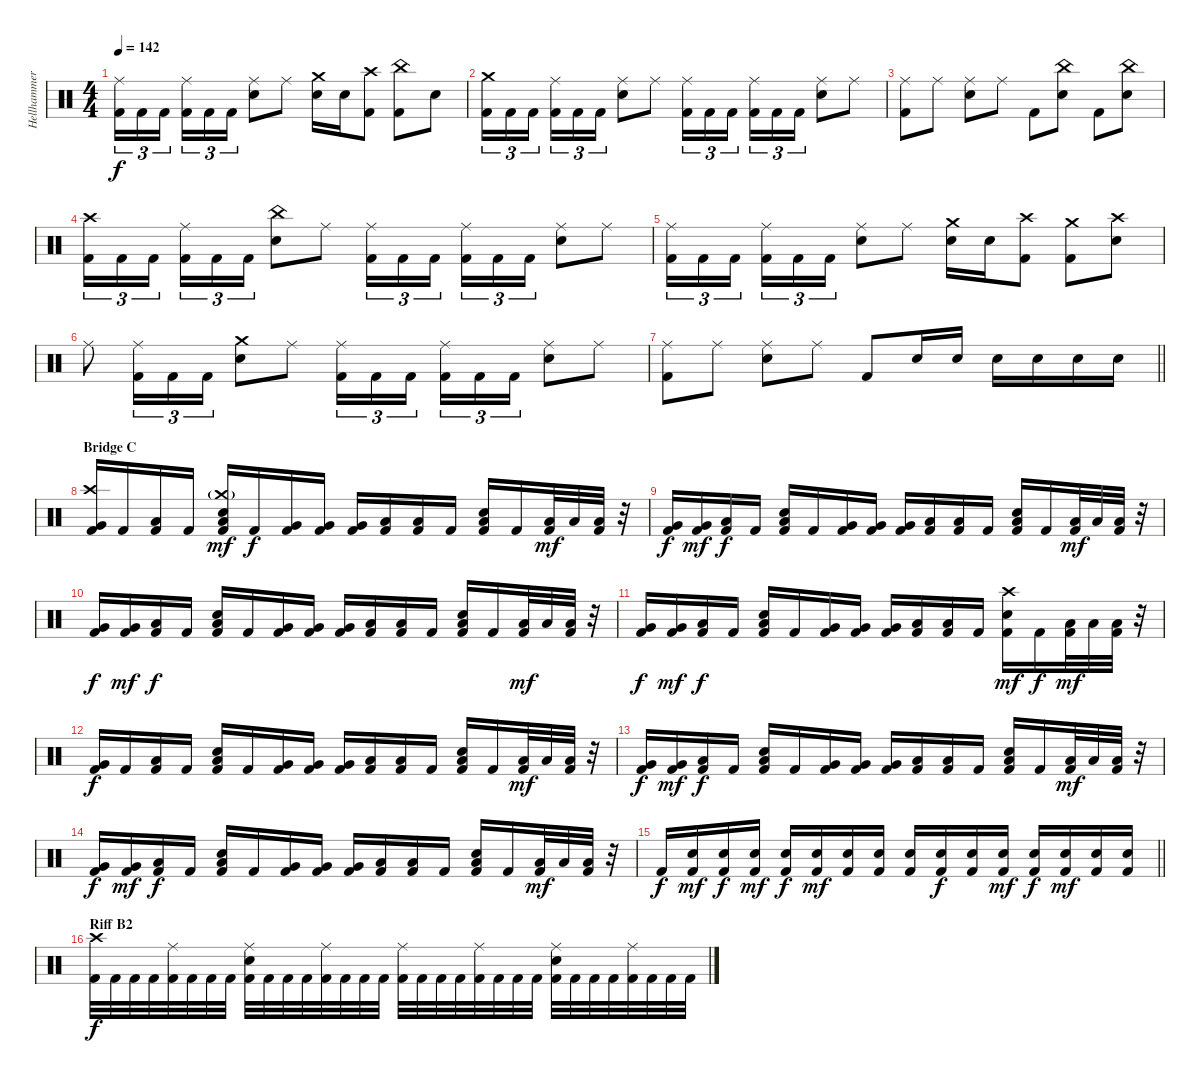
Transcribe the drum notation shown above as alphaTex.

\track ("Hellhammer" "Hellhammer") {instrument percussion}
\staff {score}
\articulation defaults
\ts (4 4)
\tempo 142
\clef neutral
\ks c
("Ride (middle)" "Kick (hit) 2").16{tu (3 2) dy f} "Kick (hit) 2".16{tu (3 2)} "Kick (hit) 2".16{tu (3 2) beam splitsecondary} ("Ride (middle)" "Kick (hit) 2").16{tu (3 2)} "Kick (hit) 2".16{tu (3 2)} "Kick (hit) 2".16{tu (3 2)} ("Ride (middle)" "Electric Snare (hit)").8 "Ride (middle)".8 ("Crash medium (hit)" "Electric Snare (hit)").16 "Electric Snare (hit)".16 ("Crash high (hit)" "Kick (hit) 2").8 ("China (hit)" "Kick (hit) 2").8 "Electric Snare (hit)".8 |
("Crash medium (hit)" "Kick (hit) 2").16{tu (3 2)} "Kick (hit) 2".16{tu (3 2)} "Kick (hit) 2".16{tu (3 2) beam splitsecondary} ("Ride (middle)" "Kick (hit) 2").16{tu (3 2)} "Kick (hit) 2".16{tu (3 2)} "Kick (hit) 2".16{tu (3 2)} ("Ride (middle)" "Electric Snare (hit)").8 "Ride (middle)".8 ("Ride (middle)" "Kick (hit) 2").16{tu (3 2)} "Kick (hit) 2".16{tu (3 2)} "Kick (hit) 2".16{tu (3 2) beam splitsecondary} ("Ride (middle)" "Kick (hit) 2").16{tu (3 2)} "Kick (hit) 2".16{tu (3 2)} "Kick (hit) 2".16{tu (3 2)} ("Ride (middle)" "Electric Snare (hit)").8 "Ride (middle)".8 |
("Ride (middle)" "Kick (hit) 2").8 "Ride (middle)".8 ("Ride (middle)" "Electric Snare (hit)").8 "Ride (middle)".8 "Kick (hit) 2".8 ("China (hit)" "Electric Snare (hit)").8 "Kick (hit) 2".8 ("China (hit)" "Electric Snare (hit)").8 |
("Crash high (hit)" "Kick (hit) 2").16{tu (3 2)} "Kick (hit) 2".16{tu (3 2)} "Kick (hit) 2".16{tu (3 2) beam splitsecondary} ("Ride (middle)" "Kick (hit) 2").16{tu (3 2)} "Kick (hit) 2".16{tu (3 2)} "Kick (hit) 2".16{tu (3 2)} ("China (hit)" "Electric Snare (hit)").8 "Ride (middle)".8 ("Ride (middle)" "Kick (hit) 2").16{tu (3 2)} "Kick (hit) 2".16{tu (3 2)} "Kick (hit) 2".16{tu (3 2) beam splitsecondary} ("Ride (middle)" "Kick (hit) 2").16{tu (3 2)} "Kick (hit) 2".16{tu (3 2)} "Kick (hit) 2".16{tu (3 2)} ("Ride (middle)" "Electric Snare (hit)").8 "Ride (middle)".8 |
("Ride (middle)" "Kick (hit) 2").16{tu (3 2)} "Kick (hit) 2".16{tu (3 2)} "Kick (hit) 2".16{tu (3 2) beam splitsecondary} ("Ride (middle)" "Kick (hit) 2").16{tu (3 2)} "Kick (hit) 2".16{tu (3 2)} "Kick (hit) 2".16{tu (3 2)} ("Ride (middle)" "Electric Snare (hit)").8 "Ride (middle)".8 ("Crash medium (hit)" "Electric Snare (hit)").16 "Electric Snare (hit)".16 ("Crash high (hit)" "Kick (hit) 2").8 ("Crash medium (hit)" "Kick (hit) 2").8 ("Crash high (hit)" "Electric Snare (hit)").8 |
"Ride (middle)".8 ("Ride (middle)" "Kick (hit) 2").16{tu (3 2)} "Kick (hit) 2".16{tu (3 2)} "Kick (hit) 2".16{tu (3 2)} ("Crash medium (hit)" "Electric Snare (hit)").8 "Ride (middle)".8 ("Ride (middle)" "Kick (hit) 2").16{tu (3 2)} "Kick (hit) 2".16{tu (3 2)} "Kick (hit) 2".16{tu (3 2) beam splitsecondary} ("Ride (middle)" "Kick (hit) 2").16{tu (3 2)} "Kick (hit) 2".16{tu (3 2)} "Kick (hit) 2".16{tu (3 2)} ("Ride (middle)" "Electric Snare (hit)").8 "Ride (middle)".8 |
\barLineRight lightlight
("Ride (middle)" "Kick (hit) 2").8 "Ride (middle)".8 ("Ride (middle)" "Electric Snare (hit)").8 "Ride (middle)".8 "Kick (hit) 2".8 "Electric Snare (hit)".16 "Electric Snare (hit)".16 "Electric Snare (hit)".16 "Electric Snare (hit)".16 "Electric Snare (hit)".16 "Electric Snare (hit)".16 |
\section ("" "Bridge C")
("Crash high (hit)" "Very Low Tom (hit)" "Kick (hit) 2").16 "Kick (hit) 2".16 ("Low Floor Tom (hit)" "Kick (hit) 2").16 "Kick (hit) 2".16 ("Crash medium (hit)"{g} "Low Floor Tom (hit)" "Electric Snare (hit)" "Kick (hit) 2").16{dy mf} "Kick (hit) 2".16{dy f} ("Very Low Tom (hit)" "Kick (hit) 2").16 ("Very Low Tom (hit)" "Kick (hit) 2").16 ("Very Low Tom (hit)" "Kick (hit) 2").16 ("Low Floor Tom (hit)" "Kick (hit) 2").16 ("Low Floor Tom (hit)" "Kick (hit) 2").16 "Kick (hit) 2".16 ("Low Floor Tom (hit)" "Electric Snare (hit)" "Kick (hit) 2").16 "Kick (hit) 2".16 ("Low Floor Tom (hit)" "Kick (hit) 2").32{dy mf} "Low Floor Tom (hit)".32 ("Low Floor Tom (hit)" "Kick (hit) 2").32 r.32 |
("Very Low Tom (hit)" "Kick (hit) 2").16{dy f} ("Very Low Tom (hit)" "Kick (hit) 2").16{dy mf} ("Low Floor Tom (hit)" "Kick (hit) 2").16{dy f} "Kick (hit) 2".16 ("Low Floor Tom (hit)" "Electric Snare (hit)" "Kick (hit) 2").16 "Kick (hit) 2".16 ("Very Low Tom (hit)" "Kick (hit) 2").16 ("Very Low Tom (hit)" "Kick (hit) 2").16 ("Very Low Tom (hit)" "Kick (hit) 2").16 ("Low Floor Tom (hit)" "Kick (hit) 2").16 ("Low Floor Tom (hit)" "Kick (hit) 2").16 "Kick (hit) 2".16 ("Low Floor Tom (hit)" "Electric Snare (hit)" "Kick (hit) 2").16 "Kick (hit) 2".16 ("Low Floor Tom (hit)" "Kick (hit) 2").32{dy mf} "Low Floor Tom (hit)".32 ("Low Floor Tom (hit)" "Kick (hit) 2").32 r.32 |
("Very Low Tom (hit)" "Kick (hit) 2").16{dy f} ("Very Low Tom (hit)" "Kick (hit) 2").16{dy mf} ("Low Floor Tom (hit)" "Kick (hit) 2").16{dy f} "Kick (hit) 2".16 ("Low Floor Tom (hit)" "Electric Snare (hit)" "Kick (hit) 2").16 "Kick (hit) 2".16 ("Very Low Tom (hit)" "Kick (hit) 2").16 ("Very Low Tom (hit)" "Kick (hit) 2").16 ("Very Low Tom (hit)" "Kick (hit) 2").16 ("Low Floor Tom (hit)" "Kick (hit) 2").16 ("Low Floor Tom (hit)" "Kick (hit) 2").16 "Kick (hit) 2".16 ("Low Floor Tom (hit)" "Electric Snare (hit)" "Kick (hit) 2").16 "Kick (hit) 2".16 ("Low Floor Tom (hit)" "Kick (hit) 2").32{dy mf} "Low Floor Tom (hit)".32 ("Low Floor Tom (hit)" "Kick (hit) 2").32 r.32 |
("Very Low Tom (hit)" "Kick (hit) 2").16{dy f} ("Very Low Tom (hit)" "Kick (hit) 2").16{dy mf} ("Low Floor Tom (hit)" "Kick (hit) 2").16{dy f} "Kick (hit) 2".16 ("Low Floor Tom (hit)" "Electric Snare (hit)" "Kick (hit) 2").16 "Kick (hit) 2".16 ("Very Low Tom (hit)" "Kick (hit) 2").16 ("Very Low Tom (hit)" "Kick (hit) 2").16 ("Very Low Tom (hit)" "Kick (hit) 2").16 ("Low Floor Tom (hit)" "Kick (hit) 2").16 ("Low Floor Tom (hit)" "Kick (hit) 2").16 "Kick (hit) 2".16 ("Crash high (hit)" "Electric Snare (hit)" "Kick (hit) 2").16{dy mf} "Kick (hit) 2".16{dy f} ("Low Floor Tom (hit)" "Kick (hit) 2").32{dy mf} "Low Floor Tom (hit)".32 ("Low Floor Tom (hit)" "Kick (hit) 2").32 r.32 |
("Very Low Tom (hit)" "Kick (hit) 2").16{dy f} "Kick (hit) 2".16 ("Low Floor Tom (hit)" "Kick (hit) 2").16 "Kick (hit) 2".16 ("Low Floor Tom (hit)" "Electric Snare (hit)" "Kick (hit) 2").16 "Kick (hit) 2".16 ("Very Low Tom (hit)" "Kick (hit) 2").16 ("Very Low Tom (hit)" "Kick (hit) 2").16 ("Very Low Tom (hit)" "Kick (hit) 2").16 ("Low Floor Tom (hit)" "Kick (hit) 2").16 ("Low Floor Tom (hit)" "Kick (hit) 2").16 "Kick (hit) 2".16 ("Low Floor Tom (hit)" "Electric Snare (hit)" "Kick (hit) 2").16 "Kick (hit) 2".16 ("Low Floor Tom (hit)" "Kick (hit) 2").32{dy mf} "Low Floor Tom (hit)".32 ("Low Floor Tom (hit)" "Kick (hit) 2").32 r.32 |
("Very Low Tom (hit)" "Kick (hit) 2").16{dy f} ("Very Low Tom (hit)" "Kick (hit) 2").16{dy mf} ("Low Floor Tom (hit)" "Kick (hit) 2").16{dy f} "Kick (hit) 2".16 ("Low Floor Tom (hit)" "Electric Snare (hit)" "Kick (hit) 2").16 "Kick (hit) 2".16 ("Very Low Tom (hit)" "Kick (hit) 2").16 ("Very Low Tom (hit)" "Kick (hit) 2").16 ("Very Low Tom (hit)" "Kick (hit) 2").16 ("Low Floor Tom (hit)" "Kick (hit) 2").16 ("Low Floor Tom (hit)" "Kick (hit) 2").16 "Kick (hit) 2".16 ("Low Floor Tom (hit)" "Electric Snare (hit)" "Kick (hit) 2").16 "Kick (hit) 2".16 ("Low Floor Tom (hit)" "Kick (hit) 2").32{dy mf} "Low Floor Tom (hit)".32 ("Low Floor Tom (hit)" "Kick (hit) 2").32 r.32 |
("Very Low Tom (hit)" "Kick (hit) 2").16{dy f} ("Very Low Tom (hit)" "Kick (hit) 2").16{dy mf} ("Low Floor Tom (hit)" "Kick (hit) 2").16{dy f} "Kick (hit) 2".16 ("Low Floor Tom (hit)" "Electric Snare (hit)" "Kick (hit) 2").16 "Kick (hit) 2".16 ("Very Low Tom (hit)" "Kick (hit) 2").16 ("Very Low Tom (hit)" "Kick (hit) 2").16 ("Very Low Tom (hit)" "Kick (hit) 2").16 ("Low Floor Tom (hit)" "Kick (hit) 2").16 ("Low Floor Tom (hit)" "Kick (hit) 2").16 "Kick (hit) 2".16 ("Low Floor Tom (hit)" "Electric Snare (hit)" "Kick (hit) 2").16 "Kick (hit) 2".16 ("Low Floor Tom (hit)" "Kick (hit) 2").32{dy mf} "Low Floor Tom (hit)".32 ("Low Floor Tom (hit)" "Kick (hit) 2").32 r.32 |
\barLineRight lightlight "Kick (hit) 2".16{dy f}
("Electric Snare (hit)" "Kick (hit) 2").16{dy mf} ("Electric Snare (hit)" "Kick (hit) 2").16{dy f} ("Electric Snare (hit)" "Kick (hit) 2").16{dy mf} ("Electric Snare (hit)" "Kick (hit) 2").16{dy f} ("Electric Snare (hit)" "Kick (hit) 2").16{dy mf} ("Electric Snare (hit)" "Kick (hit) 2").16 ("Electric Snare (hit)" "Kick (hit) 2").16 ("Electric Snare (hit)" "Kick (hit) 2").16 ("Electric Snare (hit)" "Kick (hit) 2").16{dy f} ("Electric Snare (hit)" "Kick (hit) 2").16 ("Electric Snare (hit)" "Kick (hit) 2").16{dy mf} ("Electric Snare (hit)" "Kick (hit) 2").16{dy f} ("Electric Snare (hit)" "Kick (hit) 2").16{dy mf} ("Electric Snare (hit)" "Kick (hit) 2").16 ("Electric Snare (hit)" "Kick (hit) 2").16 |
\section ("" "Riff B2")
("Crash high (hit)" "Kick (hit) 2").32{dy f} "Kick (hit) 2".32 "Kick (hit) 2".32 "Kick (hit) 2".32 ("Ride (middle)" "Kick (hit) 2").32 "Kick (hit) 2".32 "Kick (hit) 2".32 "Kick (hit) 2".32 ("Ride (middle)" "Electric Snare (hit)" "Kick (hit) 2").32 "Kick (hit) 2".32 "Kick (hit) 2".32 "Kick (hit) 2".32 ("Ride (middle)" "Kick (hit) 2").32 "Kick (hit) 2".32 "Kick (hit) 2".32 "Kick (hit) 2".32 ("Ride (middle)" "Kick (hit) 2").32 "Kick (hit) 2".32 "Kick (hit) 2".32 "Kick (hit) 2".32 ("Ride (middle)" "Kick (hit) 2").32 "Kick (hit) 2".32 "Kick (hit) 2".32 "Kick (hit) 2".32 ("Ride (middle)" "Electric Snare (hit)" "Kick (hit) 2").32 "Kick (hit) 2".32 "Kick (hit) 2".32 "Kick (hit) 2".32 ("Ride (middle)" "Kick (hit) 2").32 "Kick (hit) 2".32 "Kick (hit) 2".32 "Kick (hit) 2".32
